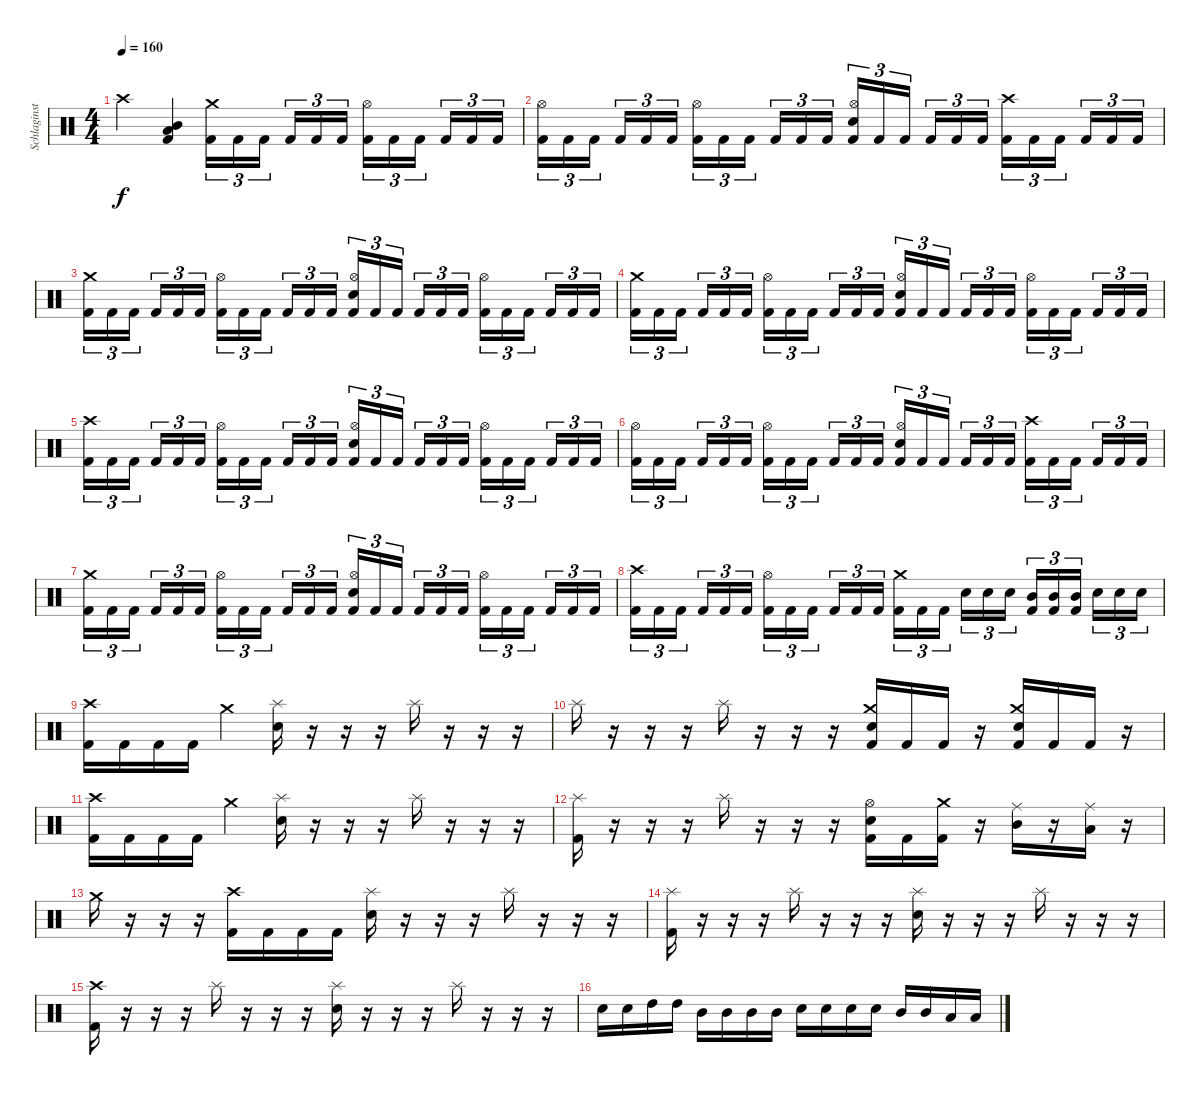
\track ("Schlaginstrumente - Auswahl" "Schlaginst") {instrument percussion}
\staff {score}
\articulation defaults
\ts (4 4)
\tempo 160
\clef neutral
\ks c "Crash high (hit)".4{dy f}
("Mid Tom (hit)" "Low Tom (hit)" "Kick (hit) 2").4 ("Crash medium (hit)" "Kick (hit) 2").16{tu (3 2)} "Kick (hit) 2".16{tu (3 2)} "Kick (hit) 2".16{tu (3 2) beam splitsecondary} "Kick (hit) 2".16{tu (3 2)} "Kick (hit) 2".16{tu (3 2)} "Kick (hit) 2".16{tu (3 2)} ("Hi-Hat (open)" "Kick (hit) 2").16{tu (3 2)} "Kick (hit) 2".16{tu (3 2)} "Kick (hit) 2".16{tu (3 2) beam splitsecondary} "Kick (hit) 2".16{tu (3 2)} "Kick (hit) 2".16{tu (3 2)} "Kick (hit) 2".16{tu (3 2)} |
("Hi-Hat (open)" "Kick (hit) 2").16{tu (3 2)} "Kick (hit) 2".16{tu (3 2)} "Kick (hit) 2".16{tu (3 2) beam splitsecondary} "Kick (hit) 2".16{tu (3 2)} "Kick (hit) 2".16{tu (3 2)} "Kick (hit) 2".16{tu (3 2)} ("Hi-Hat (open)" "Kick (hit) 2").16{tu (3 2)} "Kick (hit) 2".16{tu (3 2)} "Kick (hit) 2".16{tu (3 2) beam splitsecondary} "Kick (hit) 2".16{tu (3 2)} "Kick (hit) 2".16{tu (3 2)} "Kick (hit) 2".16{tu (3 2)} ("Hi-Hat (open)" "Electric Snare (hit)" "Kick (hit) 2").16{tu (3 2)} "Kick (hit) 2".16{tu (3 2)} "Kick (hit) 2".16{tu (3 2) beam splitsecondary} "Kick (hit) 2".16{tu (3 2)} "Kick (hit) 2".16{tu (3 2)} "Kick (hit) 2".16{tu (3 2)} ("Crash high (hit)" "Kick (hit) 2").16{tu (3 2)} "Kick (hit) 2".16{tu (3 2)} "Kick (hit) 2".16{tu (3 2) beam splitsecondary} "Kick (hit) 2".16{tu (3 2)} "Kick (hit) 2".16{tu (3 2)} "Kick (hit) 2".16{tu (3 2)} |
("Crash medium (hit)" "Kick (hit) 2").16{tu (3 2)} "Kick (hit) 2".16{tu (3 2)} "Kick (hit) 2".16{tu (3 2) beam splitsecondary} "Kick (hit) 2".16{tu (3 2)} "Kick (hit) 2".16{tu (3 2)} "Kick (hit) 2".16{tu (3 2)} ("Hi-Hat (open)" "Kick (hit) 2").16{tu (3 2)} "Kick (hit) 2".16{tu (3 2)} "Kick (hit) 2".16{tu (3 2) beam splitsecondary} "Kick (hit) 2".16{tu (3 2)} "Kick (hit) 2".16{tu (3 2)} "Kick (hit) 2".16{tu (3 2)} ("Hi-Hat (open)" "Electric Snare (hit)" "Kick (hit) 2").16{tu (3 2)} "Kick (hit) 2".16{tu (3 2)} "Kick (hit) 2".16{tu (3 2) beam splitsecondary} "Kick (hit) 2".16{tu (3 2)} "Kick (hit) 2".16{tu (3 2)} "Kick (hit) 2".16{tu (3 2)} ("Hi-Hat (open)" "Kick (hit) 2").16{tu (3 2)} "Kick (hit) 2".16{tu (3 2)} "Kick (hit) 2".16{tu (3 2) beam splitsecondary} "Kick (hit) 2".16{tu (3 2)} "Kick (hit) 2".16{tu (3 2)} "Kick (hit) 2".16{tu (3 2)} |
("Crash medium (hit)" "Kick (hit) 2").16{tu (3 2)} "Kick (hit) 2".16{tu (3 2)} "Kick (hit) 2".16{tu (3 2) beam splitsecondary} "Kick (hit) 2".16{tu (3 2)} "Kick (hit) 2".16{tu (3 2)} "Kick (hit) 2".16{tu (3 2)} ("Hi-Hat (open)" "Kick (hit) 2").16{tu (3 2)} "Kick (hit) 2".16{tu (3 2)} "Kick (hit) 2".16{tu (3 2) beam splitsecondary} "Kick (hit) 2".16{tu (3 2)} "Kick (hit) 2".16{tu (3 2)} "Kick (hit) 2".16{tu (3 2)} ("Hi-Hat (open)" "Electric Snare (hit)" "Kick (hit) 2").16{tu (3 2)} "Kick (hit) 2".16{tu (3 2)} "Kick (hit) 2".16{tu (3 2) beam splitsecondary} "Kick (hit) 2".16{tu (3 2)} "Kick (hit) 2".16{tu (3 2)} "Kick (hit) 2".16{tu (3 2)} ("Hi-Hat (open)" "Kick (hit) 2").16{tu (3 2)} "Kick (hit) 2".16{tu (3 2)} "Kick (hit) 2".16{tu (3 2) beam splitsecondary} "Kick (hit) 2".16{tu (3 2)} "Kick (hit) 2".16{tu (3 2)} "Kick (hit) 2".16{tu (3 2)} |
("Crash high (hit)" "Kick (hit) 2").16{tu (3 2)} "Kick (hit) 2".16{tu (3 2)} "Kick (hit) 2".16{tu (3 2) beam splitsecondary} "Kick (hit) 2".16{tu (3 2)} "Kick (hit) 2".16{tu (3 2)} "Kick (hit) 2".16{tu (3 2)} ("Hi-Hat (open)" "Kick (hit) 2").16{tu (3 2)} "Kick (hit) 2".16{tu (3 2)} "Kick (hit) 2".16{tu (3 2) beam splitsecondary} "Kick (hit) 2".16{tu (3 2)} "Kick (hit) 2".16{tu (3 2)} "Kick (hit) 2".16{tu (3 2)} ("Hi-Hat (open)" "Electric Snare (hit)" "Kick (hit) 2").16{tu (3 2)} "Kick (hit) 2".16{tu (3 2)} "Kick (hit) 2".16{tu (3 2) beam splitsecondary} "Kick (hit) 2".16{tu (3 2)} "Kick (hit) 2".16{tu (3 2)} "Kick (hit) 2".16{tu (3 2)} ("Hi-Hat (open)" "Kick (hit) 2").16{tu (3 2)} "Kick (hit) 2".16{tu (3 2)} "Kick (hit) 2".16{tu (3 2) beam splitsecondary} "Kick (hit) 2".16{tu (3 2)} "Kick (hit) 2".16{tu (3 2)} "Kick (hit) 2".16{tu (3 2)} |
("Hi-Hat (open)" "Kick (hit) 2").16{tu (3 2)} "Kick (hit) 2".16{tu (3 2)} "Kick (hit) 2".16{tu (3 2) beam splitsecondary} "Kick (hit) 2".16{tu (3 2)} "Kick (hit) 2".16{tu (3 2)} "Kick (hit) 2".16{tu (3 2)} ("Hi-Hat (open)" "Kick (hit) 2").16{tu (3 2)} "Kick (hit) 2".16{tu (3 2)} "Kick (hit) 2".16{tu (3 2) beam splitsecondary} "Kick (hit) 2".16{tu (3 2)} "Kick (hit) 2".16{tu (3 2)} "Kick (hit) 2".16{tu (3 2)} ("Hi-Hat (open)" "Electric Snare (hit)" "Kick (hit) 2").16{tu (3 2)} "Kick (hit) 2".16{tu (3 2)} "Kick (hit) 2".16{tu (3 2) beam splitsecondary} "Kick (hit) 2".16{tu (3 2)} "Kick (hit) 2".16{tu (3 2)} "Kick (hit) 2".16{tu (3 2)} ("Crash high (hit)" "Kick (hit) 2").16{tu (3 2)} "Kick (hit) 2".16{tu (3 2)} "Kick (hit) 2".16{tu (3 2) beam splitsecondary} "Kick (hit) 2".16{tu (3 2)} "Kick (hit) 2".16{tu (3 2)} "Kick (hit) 2".16{tu (3 2)} |
("Crash medium (hit)" "Kick (hit) 2").16{tu (3 2)} "Kick (hit) 2".16{tu (3 2)} "Kick (hit) 2".16{tu (3 2) beam splitsecondary} "Kick (hit) 2".16{tu (3 2)} "Kick (hit) 2".16{tu (3 2)} "Kick (hit) 2".16{tu (3 2)} ("Hi-Hat (open)" "Kick (hit) 2").16{tu (3 2)} "Kick (hit) 2".16{tu (3 2)} "Kick (hit) 2".16{tu (3 2) beam splitsecondary} "Kick (hit) 2".16{tu (3 2)} "Kick (hit) 2".16{tu (3 2)} "Kick (hit) 2".16{tu (3 2)} ("Hi-Hat (open)" "Electric Snare (hit)" "Kick (hit) 2").16{tu (3 2)} "Kick (hit) 2".16{tu (3 2)} "Kick (hit) 2".16{tu (3 2) beam splitsecondary} "Kick (hit) 2".16{tu (3 2)} "Kick (hit) 2".16{tu (3 2)} "Kick (hit) 2".16{tu (3 2)} ("Hi-Hat (open)" "Kick (hit) 2").16{tu (3 2)} "Kick (hit) 2".16{tu (3 2)} "Kick (hit) 2".16{tu (3 2) beam splitsecondary} "Kick (hit) 2".16{tu (3 2)} "Kick (hit) 2".16{tu (3 2)} "Kick (hit) 2".16{tu (3 2)} |
("Crash high (hit)" "Kick (hit) 2").16{tu (3 2)} "Kick (hit) 2".16{tu (3 2)} "Kick (hit) 2".16{tu (3 2) beam splitsecondary} "Kick (hit) 2".16{tu (3 2)} "Kick (hit) 2".16{tu (3 2)} "Kick (hit) 2".16{tu (3 2)} ("Hi-Hat (open)" "Kick (hit) 2").16{tu (3 2)} "Kick (hit) 2".16{tu (3 2)} "Kick (hit) 2".16{tu (3 2) beam splitsecondary} "Kick (hit) 2".16{tu (3 2)} "Kick (hit) 2".16{tu (3 2)} "Kick (hit) 2".16{tu (3 2)} ("Crash medium (hit)" "Kick (hit) 2").16{tu (3 2)} "Kick (hit) 2".16{tu (3 2)} "Kick (hit) 2".16{tu (3 2) beam splitsecondary} "Electric Snare (hit)".16{tu (3 2)} "Electric Snare (hit)".16{tu (3 2)} "Electric Snare (hit)".16{tu (3 2)} ("Mid Tom (hit)" "Kick (hit) 2").16{tu (3 2)} ("Mid Tom (hit)" "Kick (hit) 2").16{tu (3 2)} ("Mid Tom (hit)" "Kick (hit) 2").16{tu (3 2) beam splitsecondary} "Electric Snare (hit)".16{tu (3 2)} "Electric Snare (hit)".16{tu (3 2)} "Electric Snare (hit)".16{tu (3 2)} |
("Crash high (hit)" "Kick (hit) 2").16 "Kick (hit) 2".16 "Kick (hit) 2".16 "Kick (hit) 2".16 "Crash medium (hit)".4 ("Splash (hit)" "Electric Snare (hit)").16 r.16 r.16 r.16 "Splash (hit)".16 r.16 r.16 r.16 |
"Splash (hit)".16 r.16 r.16 r.16 "Splash (hit)".16 r.16 r.16 r.16 ("Crash medium (hit)" "Electric Snare (hit)" "Kick (hit) 2").16 "Kick (hit) 2".16 "Kick (hit) 2".16 r.16 ("Crash medium (hit)" "Electric Snare (hit)" "Kick (hit) 2").16 "Kick (hit) 2".16 "Kick (hit) 2".16 r.16 |
("Crash high (hit)" "Kick (hit) 2").16 "Kick (hit) 2".16 "Kick (hit) 2".16 "Kick (hit) 2".16 "Crash medium (hit)".4 ("Splash (hit)" "Electric Snare (hit)").16 r.16 r.16 r.16 "Splash (hit)".16 r.16 r.16 r.16 |
("Splash (hit)" "Kick (hit) 2").16 r.16 r.16 r.16 "Splash (hit)".16 r.16 r.16 r.16 ("Hi-Hat (open)" "Electric Snare (hit)" "Kick (hit) 2").16 "Kick (hit) 2".16 ("Crash medium (hit)" "Kick (hit) 2").16 r.16 ("Ride (middle)" "Mid Tom (hit)").16 r.16 ("Ride (middle)" "Low Tom (hit)").16 r.16 |
"Crash medium (hit)".16 r.16 r.16 r.16 ("Crash high (hit)" "Kick (hit) 2").16 "Kick (hit) 2".16 "Kick (hit) 2".16 "Kick (hit) 2".16 ("Splash (hit)" "Electric Snare (hit)").16 r.16 r.16 r.16 "Splash (hit)".16 r.16 r.16 r.16 |
("Splash (hit)" "Kick (hit) 2").16 r.16 r.16 r.16 "Splash (hit)".16 r.16 r.16 r.16 ("Splash (hit)" "Electric Snare (hit)").16 r.16 r.16 r.16 "Splash (hit)".16 r.16 r.16 r.16 |
("Crash high (hit)" "Kick (hit) 2").16 r.16 r.16 r.16 "Splash (hit)".16 r.16 r.16 r.16 ("Splash (hit)" "Electric Snare (hit)").16 r.16 r.16 r.16 "Splash (hit)".16 r.16 r.16 r.16 |
"Electric Snare (hit)".16 "Electric Snare (hit)".16 "High Tom (hit)".16 "High Tom (hit)".16 "Mid Tom (hit)".16 "Mid Tom (hit)".16 "Mid Tom (hit)".16 "Mid Tom (hit)".16 "Electric Snare (hit)".16 "Electric Snare (hit)".16 "Electric Snare (hit)".16 "Electric Snare (hit)".16 "Mid Tom (hit)".16 "Mid Tom (hit)".16 "Low Tom (hit)".16 "Low Tom (hit)".16
